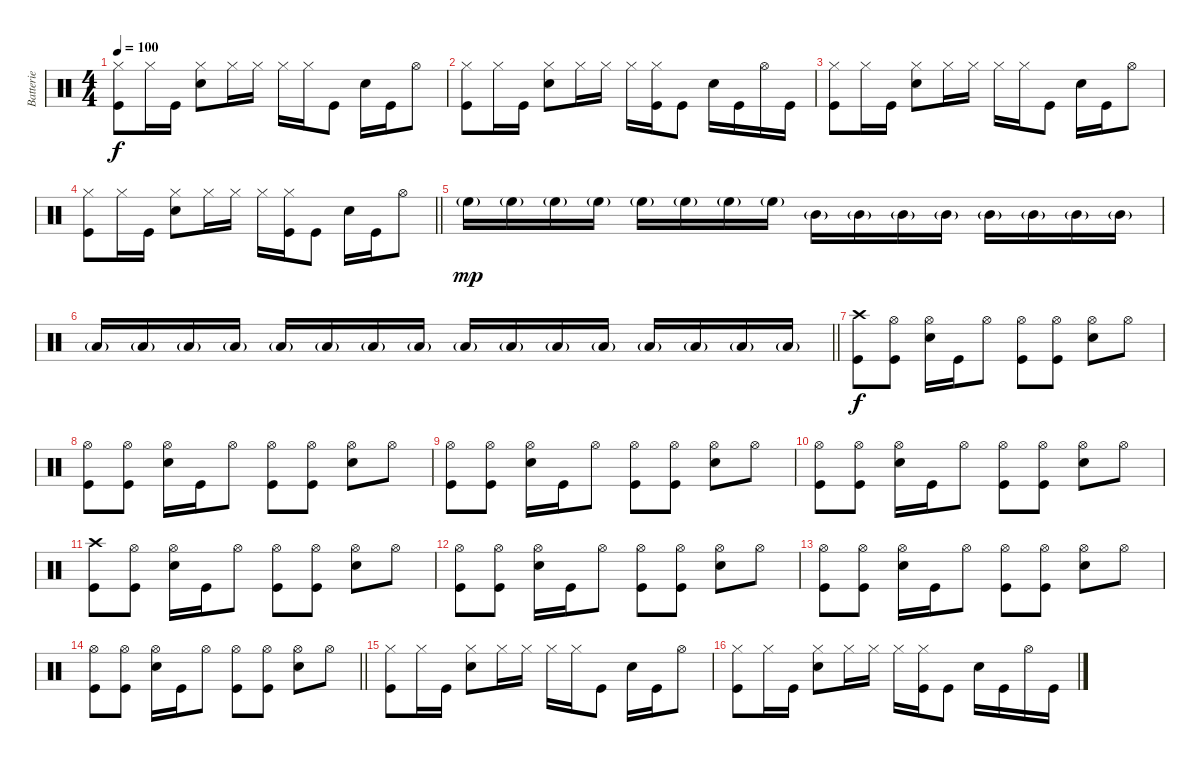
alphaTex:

\track ("Batterie" "Batterie") {instrument percussion}
\staff {score}
\articulation defaults
\ts (4 4)
\tempo 100
\clef neutral
\ks c
("Hi-Hat (closed)" "Kick (hit)").8{dy f} "Hi-Hat (closed)".16 "Kick (hit)".16 ("Hi-Hat (closed)" "Electric Snare (hit)").8 "Hi-Hat (closed)".16 "Hi-Hat (closed)".16 "Hi-Hat (closed)".16 "Hi-Hat (closed)".16 "Kick (hit)".8 "Electric Snare (hit)".16 "Kick (hit)".16 "Hi-Hat (open)".8 |
("Hi-Hat (closed)" "Kick (hit)").8 "Hi-Hat (closed)".16 "Kick (hit)".16 ("Hi-Hat (closed)" "Electric Snare (hit)").8 "Hi-Hat (closed)".16 "Hi-Hat (closed)".16 "Hi-Hat (closed)".16 ("Hi-Hat (closed)" "Kick (hit)").16 "Kick (hit)".8 "Electric Snare (hit)".16 "Kick (hit)".16 "Hi-Hat (open)".16 "Kick (hit)".16 |
("Hi-Hat (closed)" "Kick (hit)").8 "Hi-Hat (closed)".16 "Kick (hit)".16 ("Hi-Hat (closed)" "Electric Snare (hit)").8 "Hi-Hat (closed)".16 "Hi-Hat (closed)".16 "Hi-Hat (closed)".16 "Hi-Hat (closed)".16 "Kick (hit)".8 "Electric Snare (hit)".16 "Kick (hit)".16 "Hi-Hat (open)".8 |
\barLineRight lightlight
("Hi-Hat (closed)" "Kick (hit)").8 "Hi-Hat (closed)".16 "Kick (hit)".16 ("Hi-Hat (closed)" "Electric Snare (hit)").8 "Hi-Hat (closed)".16 "Hi-Hat (closed)".16 "Hi-Hat (closed)".16 ("Hi-Hat (closed)" "Kick (hit)").16 "Kick (hit)".8 "Electric Snare (hit)".16 "Kick (hit)".16 "Hi-Hat (open)".8 |
"High Floor Tom (hit)"{g}.16{dy mp} "High Floor Tom (hit)"{g}.16 "High Floor Tom (hit)"{g}.16 "High Floor Tom (hit)"{g}.16 "High Floor Tom (hit)"{g}.16 "High Floor Tom (hit)"{g}.16 "High Floor Tom (hit)"{g}.16 "High Floor Tom (hit)"{g}.16 "Mid Tom (hit)"{g}.16 "Mid Tom (hit)"{g}.16 "Mid Tom (hit)"{g}.16 "Mid Tom (hit)"{g}.16 "Mid Tom (hit)"{g}.16 "Mid Tom (hit)"{g}.16 "Mid Tom (hit)"{g}.16 "Mid Tom (hit)"{g}.16 |
\barLineRight lightlight "Low Tom (hit)"{g}.16 "Low Tom (hit)"{g}.16 "Low Tom (hit)"{g}.16 "Low Tom (hit)"{g}.16 "Low Tom (hit)"{g}.16 "Low Tom (hit)"{g}.16 "Low Tom (hit)"{g}.16 "Low Tom (hit)"{g}.16 "Low Floor Tom (hit)"{g}.16 "Low Floor Tom (hit)"{g}.16 "Low Floor Tom (hit)"{g}.16 "Low Floor Tom (hit)"{g}.16 "Low Floor Tom (hit)"{g}.16 "Low Floor Tom (hit)"{g}.16 "Low Floor Tom (hit)"{g}.16 "Low Floor Tom (hit)"{g}.16
|
("Crash high (hit)" "Kick (hit)").8{dy f} ("Hi-Hat (open)" "Kick (hit)").8 ("Hi-Hat (open)" "Electric Snare (hit)").16 "Kick (hit)".16 "Hi-Hat (open)".8 ("Hi-Hat (open)" "Kick (hit)").8 ("Hi-Hat (open)" "Kick (hit)").8 ("Hi-Hat (open)" "Electric Snare (hit)").8 "Hi-Hat (open)".8 |
("Hi-Hat (open)" "Kick (hit)").8 ("Hi-Hat (open)" "Kick (hit)").8 ("Hi-Hat (open)" "Electric Snare (hit)").16 "Kick (hit)".16 "Hi-Hat (open)".8 ("Hi-Hat (open)" "Kick (hit)").8 ("Hi-Hat (open)" "Kick (hit)").8 ("Hi-Hat (open)" "Electric Snare (hit)").8 "Hi-Hat (open)".8 |
("Hi-Hat (open)" "Kick (hit)").8 ("Hi-Hat (open)" "Kick (hit)").8 ("Hi-Hat (open)" "Electric Snare (hit)").16 "Kick (hit)".16 "Hi-Hat (open)".8 ("Hi-Hat (open)" "Kick (hit)").8 ("Hi-Hat (open)" "Kick (hit)").8 ("Hi-Hat (open)" "Electric Snare (hit)").8 "Hi-Hat (open)".8 |
("Hi-Hat (open)" "Kick (hit)").8 ("Hi-Hat (open)" "Kick (hit)").8 ("Hi-Hat (open)" "Electric Snare (hit)").16 "Kick (hit)".16 "Hi-Hat (open)".8 ("Hi-Hat (open)" "Kick (hit)").8 ("Hi-Hat (open)" "Kick (hit)").8 ("Hi-Hat (open)" "Electric Snare (hit)").8 "Hi-Hat (open)".8 |
("Crash high (hit)" "Kick (hit)").8 ("Hi-Hat (open)" "Kick (hit)").8 ("Hi-Hat (open)" "Electric Snare (hit)").16 "Kick (hit)".16 "Hi-Hat (open)".8 ("Hi-Hat (open)" "Kick (hit)").8 ("Hi-Hat (open)" "Kick (hit)").8 ("Hi-Hat (open)" "Electric Snare (hit)").8 "Hi-Hat (open)".8 |
("Hi-Hat (open)" "Kick (hit)").8 ("Hi-Hat (open)" "Kick (hit)").8 ("Hi-Hat (open)" "Electric Snare (hit)").16 "Kick (hit)".16 "Hi-Hat (open)".8 ("Hi-Hat (open)" "Kick (hit)").8 ("Hi-Hat (open)" "Kick (hit)").8 ("Hi-Hat (open)" "Electric Snare (hit)").8 "Hi-Hat (open)".8 |
("Hi-Hat (open)" "Kick (hit)").8 ("Hi-Hat (open)" "Kick (hit)").8 ("Hi-Hat (open)" "Electric Snare (hit)").16 "Kick (hit)".16 "Hi-Hat (open)".8 ("Hi-Hat (open)" "Kick (hit)").8 ("Hi-Hat (open)" "Kick (hit)").8 ("Hi-Hat (open)" "Electric Snare (hit)").8 "Hi-Hat (open)".8 |
\barLineRight lightlight
("Hi-Hat (open)" "Kick (hit)").8 ("Hi-Hat (open)" "Kick (hit)").8 ("Hi-Hat (open)" "Electric Snare (hit)").16 "Kick (hit)".16 "Hi-Hat (open)".8 ("Hi-Hat (open)" "Kick (hit)").8 ("Hi-Hat (open)" "Kick (hit)").8 ("Hi-Hat (open)" "Electric Snare (hit)").8 "Hi-Hat (open)".8 |
("Hi-Hat (closed)" "Kick (hit)").8 "Hi-Hat (closed)".16 "Kick (hit)".16 ("Hi-Hat (closed)" "Electric Snare (hit)").8 "Hi-Hat (closed)".16 "Hi-Hat (closed)".16 "Hi-Hat (closed)".16 "Hi-Hat (closed)".16 "Kick (hit)".8 "Electric Snare (hit)".16 "Kick (hit)".16 "Hi-Hat (open)".8 |
("Hi-Hat (closed)" "Kick (hit)").8 "Hi-Hat (closed)".16 "Kick (hit)".16 ("Hi-Hat (closed)" "Electric Snare (hit)").8 "Hi-Hat (closed)".16 "Hi-Hat (closed)".16 "Hi-Hat (closed)".16 ("Hi-Hat (closed)" "Kick (hit)").16 "Kick (hit)".8 "Electric Snare (hit)".16 "Kick (hit)".16 "Hi-Hat (open)".16 "Kick (hit)".16
